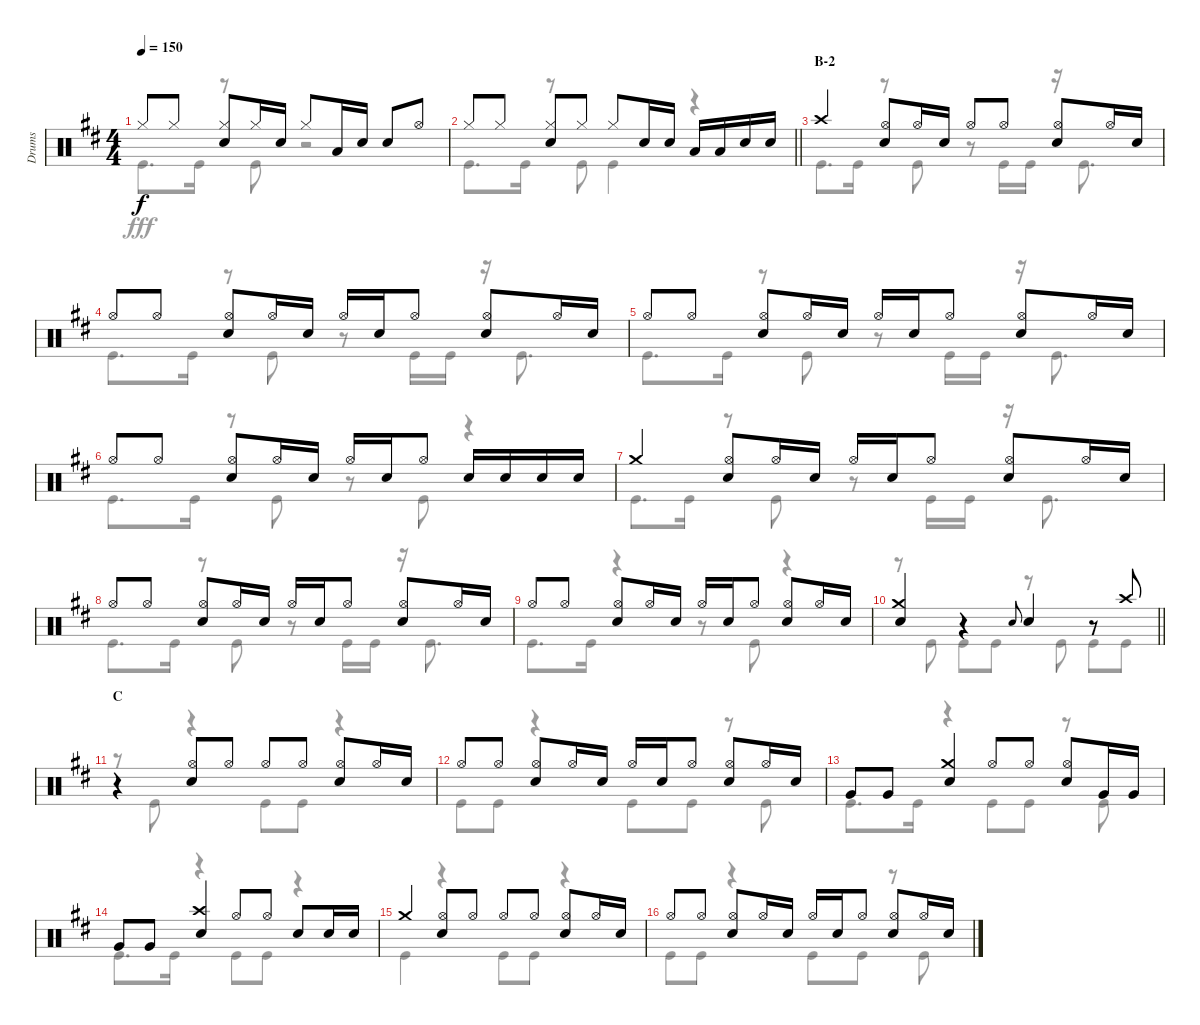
\track ("Drums" "Drums") {instrument percussion}
\staff {score}
\articulation defaults
\voice
\ts (4 4)
\tempo 150
\clef neutral
\ks d "Hi-Hat (closed)".8{dy f} "Hi-Hat (closed)".8
("Hi-Hat (closed)" "Snare (hit) 2").8 "Hi-Hat (closed)".16 "Snare (hit) 2".16 "Hi-Hat (closed)".8 "Low Tom (hit)".16 "Snare (hit) 2".16 "Snare (hit) 2".8 "Hi-Hat (open)".8 |
\barLineRight lightlight "Hi-Hat (closed)".8 "Hi-Hat (closed)".8
("Hi-Hat (closed)" "Snare (hit) 2").8 "Hi-Hat (closed)".8 "Hi-Hat (closed)".8 "Snare (hit) 2".16 "Snare (hit) 2".16 "Low Tom (hit)".16 "Low Tom (hit)".16 "Snare (hit) 2".16 "Snare (hit) 2".16 |
\section ("" "B-2")
"Crash high (hit)".4 ("Hi-Hat (open)" "Snare (hit) 2").8 "Hi-Hat (open)".16 "Snare (hit) 2".16 "Hi-Hat (open)".8 "Hi-Hat (open)".8 ("Hi-Hat (open)" "Snare (hit) 2").8 "Hi-Hat (open)".16 "Snare (hit) 2".16 |
"Hi-Hat (open)".8 "Hi-Hat (open)".8 ("Hi-Hat (open)" "Snare (hit) 2").8 "Hi-Hat (open)".16 "Snare (hit) 2".16 "Hi-Hat (open)".16 "Snare (hit) 2".16 "Hi-Hat (open)".8 ("Hi-Hat (open)" "Snare (hit) 2").8 "Hi-Hat (open)".16 "Snare (hit) 2".16 |
"Hi-Hat (open)".8 "Hi-Hat (open)".8 ("Hi-Hat (open)" "Snare (hit) 2").8 "Hi-Hat (open)".16 "Snare (hit) 2".16 "Hi-Hat (open)".16 "Snare (hit) 2".16 "Hi-Hat (open)".8 ("Hi-Hat (open)" "Snare (hit) 2").8 "Hi-Hat (open)".16 "Snare (hit) 2".16 |
"Hi-Hat (open)".8 "Hi-Hat (open)".8 ("Hi-Hat (open)" "Snare (hit) 2").8 "Hi-Hat (open)".16 "Snare (hit) 2".16 "Hi-Hat (open)".16 "Snare (hit) 2".16 "Hi-Hat (open)".8 "Snare (hit) 2".16 "Snare (hit) 2".16 "Snare (hit) 2".16 "Snare (hit) 2".16 |
"Crash medium (hit)".4 ("Hi-Hat (open)" "Snare (hit) 2").8 "Hi-Hat (open)".16 "Snare (hit) 2".16 "Hi-Hat (open)".16 "Snare (hit) 2".16 "Hi-Hat (open)".8 ("Hi-Hat (open)" "Snare (hit) 2").8 "Hi-Hat (open)".16 "Snare (hit) 2".16 |
"Hi-Hat (open)".8 "Hi-Hat (open)".8 ("Hi-Hat (open)" "Snare (hit) 2").8 "Hi-Hat (open)".16 "Snare (hit) 2".16 "Hi-Hat (open)".16 "Snare (hit) 2".16 "Hi-Hat (open)".8 ("Hi-Hat (open)" "Snare (hit) 2").8 "Hi-Hat (open)".16 "Snare (hit) 2".16 |
"Hi-Hat (open)".8 "Hi-Hat (open)".8 ("Hi-Hat (open)" "Snare (hit) 2").8 "Hi-Hat (open)".16 "Snare (hit) 2".16 "Hi-Hat (open)".16 "Snare (hit) 2".16 "Hi-Hat (open)".8 ("Hi-Hat (open)" "Snare (hit) 2").8 "Hi-Hat (open)".16 "Snare (hit) 2".16 |
\barLineRight lightlight
("Crash medium (hit)" "Snare (hit) 2").4 r.4 "Snare (hit) 2".8{gr onbeat} "Snare (hit) 2".4 r.8 "Crash high (hit)".8 |
\section ("" "C")
r.4 ("Hi-Hat (open)" "Snare (hit) 2").8 "Hi-Hat (open)".8 "Hi-Hat (open)".8 "Hi-Hat (open)".8 ("Hi-Hat (open)" "Snare (hit) 2").8 "Hi-Hat (open)".16 "Snare (hit) 2".16 |
"Hi-Hat (open)".8 "Hi-Hat (open)".8 ("Hi-Hat (open)" "Snare (hit) 2").8 "Hi-Hat (open)".16 "Snare (hit) 2".16 "Hi-Hat (open)".16 "Snare (hit) 2".16 "Hi-Hat (open)".8 ("Hi-Hat (open)" "Snare (hit) 2").8 "Hi-Hat (open)".16 "Snare (hit) 2".16 |
"Very Low Tom (hit)".8 "Very Low Tom (hit)".8 ("Crash medium (hit)" "Snare (hit) 2").4 "Hi-Hat (open)".8 "Hi-Hat (open)".8 ("Hi-Hat (open)" "Snare (hit) 2").8 "Very Low Tom (hit)".16 "Very Low Tom (hit)".16 |
"Very Low Tom (hit)".8 "Very Low Tom (hit)".8 ("Crash high (hit)" "Snare (hit) 2").4 "Hi-Hat (open)".8 "Hi-Hat (open)".8 "Snare (hit) 2".8 "Snare (hit) 2".16 "Snare (hit) 2".16 |
"Crash medium (hit)".4 ("Hi-Hat (open)" "Snare (hit) 2").8 "Hi-Hat (open)".8 "Hi-Hat (open)".8 "Hi-Hat (open)".8 ("Hi-Hat (open)" "Snare (hit) 2").8 "Hi-Hat (open)".16 "Snare (hit) 2".16 |
"Hi-Hat (open)".8 "Hi-Hat (open)".8 ("Hi-Hat (open)" "Snare (hit) 2").8 "Hi-Hat (open)".16 "Snare (hit) 2".16 "Hi-Hat (open)".16 "Snare (hit) 2".16 "Hi-Hat (open)".8 ("Hi-Hat (open)" "Snare (hit) 2").8 "Hi-Hat (open)".16 "Snare (hit) 2".16
\voice
\clef neutral
\ottava regular
\simile none
\ks d "Kick (hit)".8{d dy fff} "Kick (hit)".16
r.8 "Kick (hit)".8 r.2 |
\barLineRight lightlight "Kick (hit)".8{d} "Kick (hit)".16
r.8 "Kick (hit)".8 "Kick (hit)".4 r.4 |
"Kick (hit)".8{d} "Kick (hit)".16 r.8 "Kick (hit)".8 r.8 "Kick (hit)".16 "Kick (hit)".16 r.16 "Kick (hit)".8{d} |
"Kick (hit)".8{d} "Kick (hit)".16 r.8 "Kick (hit)".8 r.8 "Kick (hit)".16 "Kick (hit)".16 r.16 "Kick (hit)".8{d} |
"Kick (hit)".8{d} "Kick (hit)".16 r.8 "Kick (hit)".8 r.8 "Kick (hit)".16 "Kick (hit)".16 r.16 "Kick (hit)".8{d} |
"Kick (hit)".8{d} "Kick (hit)".16 r.8 "Kick (hit)".8 r.8 "Kick (hit)".8 r.4 |
"Kick (hit)".8{d} "Kick (hit)".16 r.8 "Kick (hit)".8 r.8 "Kick (hit)".16 "Kick (hit)".16 r.16 "Kick (hit)".8{d} |
"Kick (hit)".8{d} "Kick (hit)".16 r.8 "Kick (hit)".8 r.8 "Kick (hit)".16 "Kick (hit)".16 r.16 "Kick (hit)".8{d} |
"Kick (hit)".8{d} "Kick (hit)".16 r.4 r.8 "Kick (hit)".8 r.4 |
\barLineRight lightlight
r.8 "Kick (hit)".8 "Kick (hit)".8 "Kick (hit)".8 r.8 "Kick (hit)".8 "Kick (hit)".8 "Kick (hit)".8 |
r.8 "Kick (hit)".8 r.4 "Kick (hit)".8 "Kick (hit)".8 r.4 |
"Kick (hit)".8 "Kick (hit)".8 r.4 "Kick (hit)".8 "Kick (hit)".8 r.8 "Kick (hit)".8 |
"Kick (hit)".8{d} "Kick (hit)".16 r.4 "Kick (hit)".8 "Kick (hit)".8 r.8 "Kick (hit)".8 |
"Kick (hit)".8{d} "Kick (hit)".16 r.4 "Kick (hit)".8 "Kick (hit)".8 r.4 |
"Kick (hit)".4 r.4 "Kick (hit)".8 "Kick (hit)".8 r.4 |
"Kick (hit)".8 "Kick (hit)".8 r.4 "Kick (hit)".8 "Kick (hit)".8 r.8 "Kick (hit)".8
